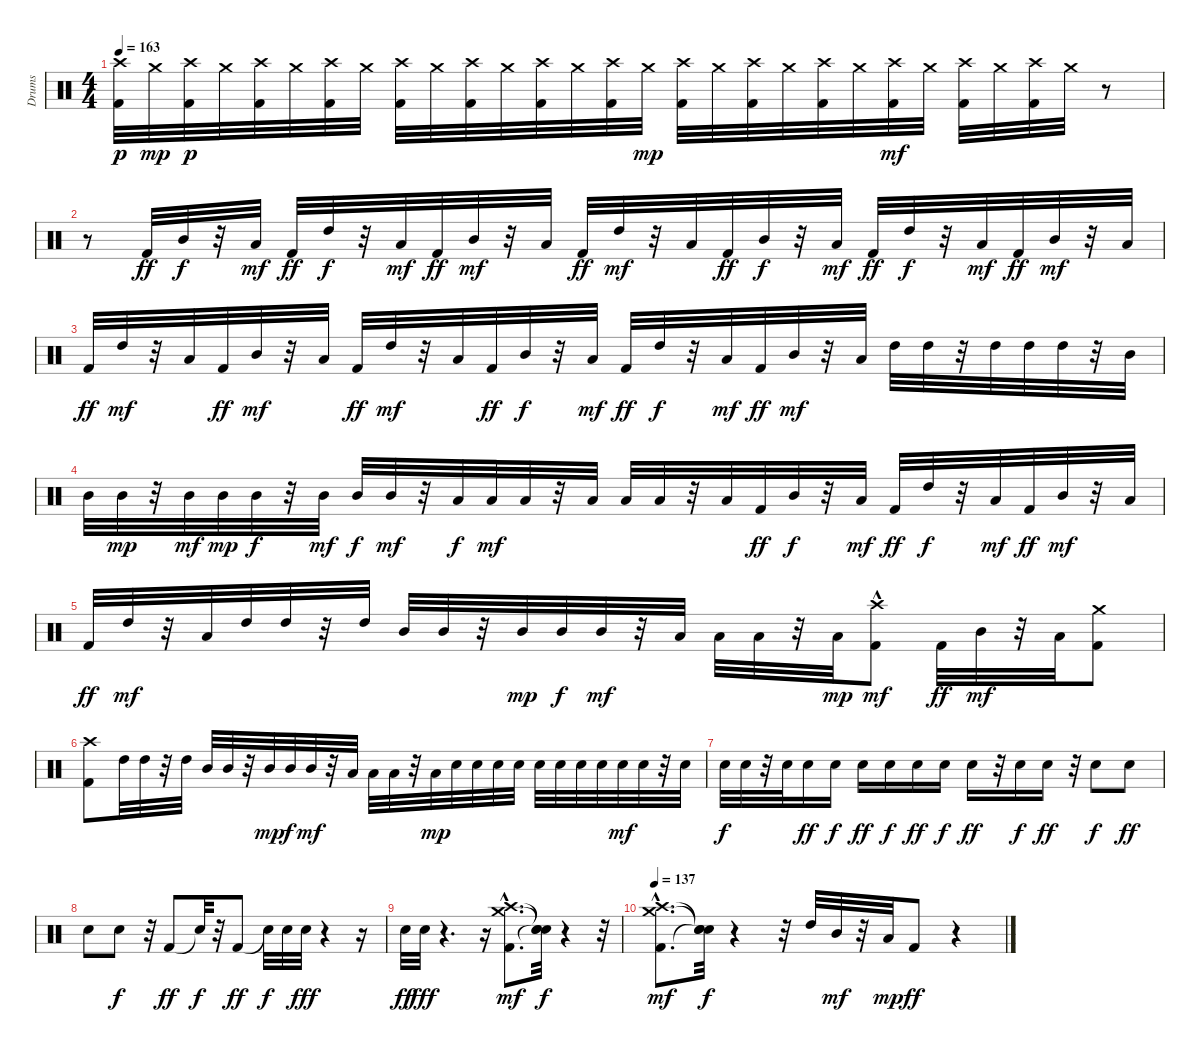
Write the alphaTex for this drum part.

\track ("Drums" "Drums") {instrument percussion}
\staff {score}
\articulation defaults
\ts (4 4)
\tempo 163
\clef neutral
\ks c
("Crash high (hit)" "Kick (hit) 2").32{dy p} "Crash medium (hit)".32{dy mp} ("Crash high (hit)" "Kick (hit) 2").32{dy p} "Crash medium (hit)".32 ("Crash high (hit)" "Kick (hit) 2").32 "Crash medium (hit)".32 ("Crash high (hit)" "Kick (hit) 2").32 "Crash medium (hit)".32 ("Crash high (hit)" "Kick (hit) 2").32 "Crash medium (hit)".32 ("Crash high (hit)" "Kick (hit) 2").32 "Crash medium (hit)".32 ("Crash high (hit)" "Kick (hit) 2").32 "Crash medium (hit)".32 ("Crash high (hit)" "Kick (hit) 2").32 "Crash medium (hit)".32{dy mp} ("Crash high (hit)" "Kick (hit) 2").32 "Crash medium (hit)".32 ("Crash high (hit)" "Kick (hit) 2").32 "Crash medium (hit)".32 ("Crash high (hit)" "Kick (hit) 2").32 "Crash medium (hit)".32 ("Crash high (hit)" "Kick (hit) 2").32{dy mf} "Crash medium (hit)".32 ("Crash high (hit)" "Kick (hit) 2").32 "Crash medium (hit)".32 ("Crash high (hit)" "Kick (hit) 2").32 "Crash medium (hit)".32 r.8 |
r.8 "Kick (hit) 2".32{dy ff} "Mid Tom (hit)".32{dy f} r.32 "Low Tom (hit)".32{dy mf} "Kick (hit) 2".32{dy ff} "High Tom (hit)".32{dy f} r.32 "Low Tom (hit)".32{dy mf} "Kick (hit) 2".32{dy ff} "Mid Tom (hit)".32{dy mf} r.32 "Low Tom (hit)".32 "Kick (hit) 2".32{dy ff} "High Tom (hit)".32{dy mf} r.32 "Low Tom (hit)".32 "Kick (hit) 2".32{dy ff} "Mid Tom (hit)".32{dy f} r.32 "Low Tom (hit)".32{dy mf} "Kick (hit) 2".32{dy ff} "High Tom (hit)".32{dy f} r.32 "Low Tom (hit)".32{dy mf} "Kick (hit) 2".32{dy ff} "Mid Tom (hit)".32{dy mf} r.32 "Low Tom (hit)".32 |
"Kick (hit) 2".32{dy ff} "High Tom (hit)".32{dy mf} r.32 "Low Tom (hit)".32 "Kick (hit) 2".32{dy ff} "Mid Tom (hit)".32{dy mf} r.32 "Low Tom (hit)".32 "Kick (hit) 2".32{dy ff} "High Tom (hit)".32{dy mf} r.32 "Low Tom (hit)".32 "Kick (hit) 2".32{dy ff} "Mid Tom (hit)".32{dy f} r.32 "Low Tom (hit)".32{dy mf} "Kick (hit) 2".32{dy ff} "High Tom (hit)".32{dy f} r.32 "Low Tom (hit)".32{dy mf} "Kick (hit) 2".32{dy ff} "Mid Tom (hit)".32{dy mf} r.32 "Low Tom (hit)".32 "High Tom (hit)".32 "High Tom (hit)".32 r.32 "High Tom (hit)".32 "High Tom (hit)".32 "High Tom (hit)".32 r.32 "Mid Tom (hit)".32 |
"Mid Tom (hit)".32 "Mid Tom (hit)".32{dy mp} r.32 "Mid Tom (hit)".32{dy mf} "Mid Tom (hit)".32{dy mp} "Mid Tom (hit)".32{dy f} r.32 "Mid Tom (hit)".32{dy mf} "Mid Tom (hit)".32{dy f} "Mid Tom (hit)".32{dy mf} r.32 "Low Tom (hit)".32{dy f} "Low Tom (hit)".32{dy mf} "Low Tom (hit)".32 r.32 "Low Tom (hit)".32 "Low Tom (hit)".32 "Low Tom (hit)".32 r.32 "Low Tom (hit)".32 "Kick (hit) 2".32{dy ff} "Mid Tom (hit)".32{dy f} r.32 "Low Tom (hit)".32{dy mf} "Kick (hit) 2".32{dy ff} "High Tom (hit)".32{dy f} r.32 "Low Tom (hit)".32{dy mf} "Kick (hit) 2".32{dy ff} "Mid Tom (hit)".32{dy mf} r.32 "Low Tom (hit)".32 |
"Kick (hit) 2".32{dy ff} "High Tom (hit)".32{dy mf} r.32 "Low Tom (hit)".32 "High Tom (hit)".32 "High Tom (hit)".32 r.32 "High Tom (hit)".32 "Mid Tom (hit)".32 "Mid Tom (hit)".32 r.32 "Mid Tom (hit)".32{dy mp} "Mid Tom (hit)".32{dy f} "Mid Tom (hit)".32{dy mf} r.32 "Low Tom (hit)".32 "Low Tom (hit)".32 "Low Tom (hit)".32 r.32 "Low Tom (hit)".32{dy mp} ("Kick (hit) 2" "Crash high (hit)"{hac}).8{dy mf} "Kick (hit) 2".32{dy ff} "Mid Tom (hit)".32{dy mf} r.32 "Low Tom (hit)".32 ("Kick (hit) 2" "Crash medium (hit)").8 |
("Kick (hit) 2" "Crash high (hit)").8 "High Tom (hit)".32 "High Tom (hit)".32 r.32 "High Tom (hit)".32 "Mid Tom (hit)".32 "Mid Tom (hit)".32 r.32 "Mid Tom (hit)".32{dy mp} "Mid Tom (hit)".32{dy f} "Mid Tom (hit)".32{dy mf} r.32 "Low Tom (hit)".32 "Low Tom (hit)".32 "Low Tom (hit)".32 r.32 "Low Tom (hit)".32{dy mp} "Snare (hit) 2".32 "Snare (hit) 2".32 "Snare (hit) 2".32 "Snare (hit) 2".32 "Snare (hit) 2".32 "Snare (hit) 2".32 "Snare (hit) 2".32 "Snare (hit) 2".32 "Snare (hit) 2".32{dy mf} "Snare (hit) 2".32 r.32 "Snare (hit) 2".32 |
"Snare (hit) 2".32{dy f} "Snare (hit) 2".32 r.32 "Snare (hit) 2".32 "Snare (hit) 2".16{dy ff} "Snare (hit) 2".16{dy f} "Snare (hit) 2".16{dy ff} "Snare (hit) 2".16{dy f} "Snare (hit) 2".16{dy ff} "Snare (hit) 2".16{dy f} "Snare (hit) 2".16{dy ff} r.32 "Snare (hit) 2".16{dy f} "Snare (hit) 2".16{dy ff} r.32 "Snare (hit) 2".8{dy f} "Snare (hit) 2".8{dy ff} |
"Snare (hit) 2".8 "Snare (hit) 2".8{dy f} r.32 "Kick (hit) 2".8{dy ff} "Snare (hit)"{t}.32{dy f} r.32 "Kick (hit) 2".8{dy ff} "Snare (hit)"{t}.32{dy f} "Snare (hit) 2".32 "Snare (hit) 2".32{dy fff} r.4 r.16 |
"Snare (hit) 2".32{dy ff} "Snare (hit) 2".32{dy fff} r.4{d} r.16 ("Kick (hit) 2"{hac} "Crash medium (hit)"{hac} "Crash high (hit)"{hac}).8{d dy mf} ("Snare (hit)"{t} "Snare (hit)"{t} "Snare (hit)"{t}).32{dy f} r.4 r.32 |
\tempo 137
("Kick (hit) 2"{hac} "Crash high (hit)"{hac} "Crash medium (hit)"{hac}).8{d dy mf} ("Snare (hit)"{t} "Snare (hit)"{t} "Snare (hit)"{t}).32{dy f} r.4 r.32 "High Tom (hit)".32 "Mid Tom (hit)".32{dy mf} r.32 "Low Tom (hit)".32{dy mp} "Kick (hit) 2".8{dy ff} r.4
